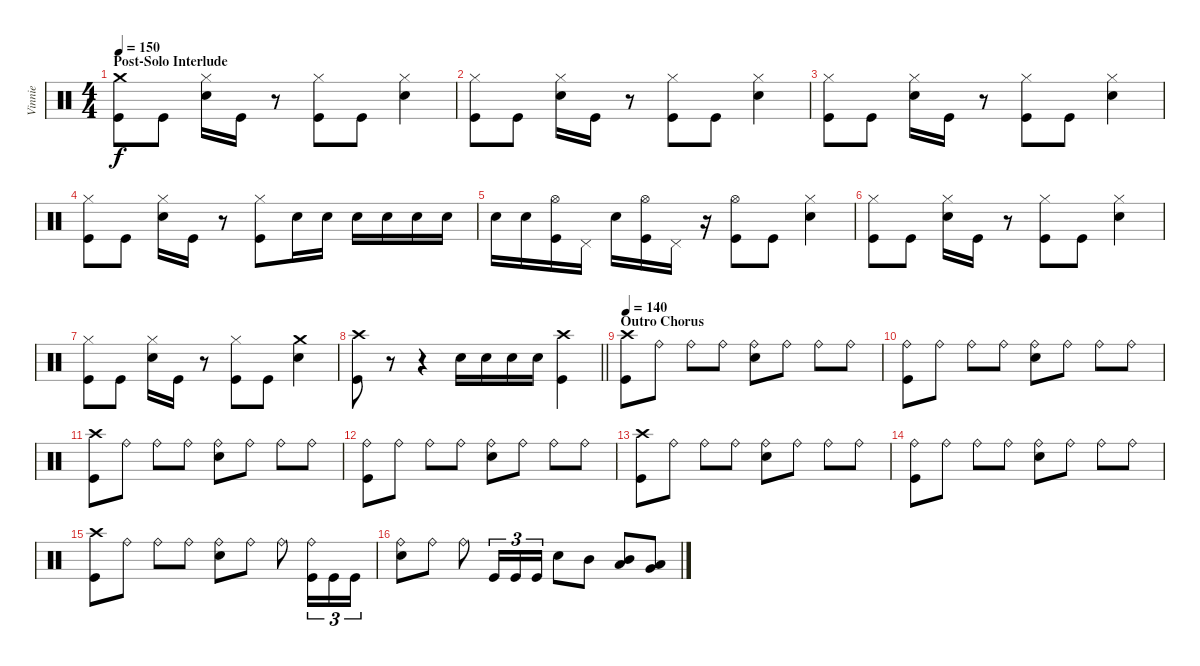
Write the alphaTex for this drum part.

\track ("Vinnie" "Vinnie") {instrument percussion}
\staff {score}
\articulation defaults
\ts (4 4)
\section ("" "Post-Solo Interlude")
\tempo 150
\clef neutral
\ks c
("Crash medium (hit)" "Kick (hit)").8{dy f} "Kick (hit)".8 ("Hi-Hat (closed)" "Electric Snare (hit)").16 "Kick (hit)".16 r.8 ("Hi-Hat (closed)" "Kick (hit)").8 "Kick (hit)".8 ("Hi-Hat (closed)" "Electric Snare (hit)").4 |
("Hi-Hat (closed)" "Kick (hit)").8 "Kick (hit)".8 ("Hi-Hat (closed)" "Electric Snare (hit)").16 "Kick (hit)".16 r.8 ("Hi-Hat (closed)" "Kick (hit)").8 "Kick (hit)".8 ("Hi-Hat (closed)" "Electric Snare (hit)").4 |
("Hi-Hat (closed)" "Kick (hit)").8 "Kick (hit)".8 ("Hi-Hat (closed)" "Electric Snare (hit)").16 "Kick (hit)".16 r.8 ("Hi-Hat (closed)" "Kick (hit)").8 "Kick (hit)".8 ("Hi-Hat (closed)" "Electric Snare (hit)").4 |
("Hi-Hat (closed)" "Kick (hit)").8 "Kick (hit)".8 ("Hi-Hat (closed)" "Electric Snare (hit)").16 "Kick (hit)".16 r.8 ("Hi-Hat (closed)" "Kick (hit)").8 "Electric Snare (hit)".16 "Electric Snare (hit)".16 "Electric Snare (hit)".16 "Electric Snare (hit)".16 "Electric Snare (hit)".16 "Electric Snare (hit)".16 |
"Electric Snare (hit)".16 "Electric Snare (hit)".16 ("Hi-Hat (open)" "Kick (hit)").16 "Pedal Hi-Hat (hit)".16 "Electric Snare (hit)".16 ("Hi-Hat (open)" "Kick (hit)").16 "Pedal Hi-Hat (hit)".16 r.16 ("Hi-Hat (open)" "Kick (hit)").8 "Kick (hit)".8 ("Hi-Hat (closed)" "Electric Snare (hit)").4 |
("Hi-Hat (closed)" "Kick (hit)").8 "Kick (hit)".8 ("Hi-Hat (closed)" "Electric Snare (hit)").16 "Kick (hit)".16 r.8 ("Hi-Hat (closed)" "Kick (hit)").8 "Kick (hit)".8 ("Hi-Hat (closed)" "Electric Snare (hit)").4 |
("Hi-Hat (closed)" "Kick (hit)").8 "Kick (hit)".8 ("Hi-Hat (closed)" "Electric Snare (hit)").16 "Kick (hit)".16 r.8 ("Hi-Hat (closed)" "Kick (hit)").8 "Kick (hit)".8 ("Crash medium (hit)" "Electric Snare (hit)").4 |
\barLineRight lightlight
("Crash high (hit)" "Kick (hit)").8 r.8{volume 0} r.4 "Electric Snare (hit)".16{volume 16} "Electric Snare (hit)".16 "Electric Snare (hit)".16 "Electric Snare (hit)".16 ("Crash high (hit)" "Kick (hit)").4 |
\section ("" "Outro Chorus")
\tempo 140
("Crash high (hit)" "Kick (hit)").8 "Ride (bell)".8 "Ride (bell)".8 "Ride (bell)".8 ("Ride (bell)" "Electric Snare (hit)").8 "Ride (bell)".8 "Ride (bell)".8 "Ride (bell)".8 |
("Ride (bell)" "Kick (hit)").8 "Ride (bell)".8 "Ride (bell)".8 "Ride (bell)".8 ("Ride (bell)" "Electric Snare (hit)").8 "Ride (bell)".8 "Ride (bell)".8 "Ride (bell)".8 |
("Crash high (hit)" "Kick (hit)").8 "Ride (bell)".8 "Ride (bell)".8 "Ride (bell)".8 ("Ride (bell)" "Electric Snare (hit)").8 "Ride (bell)".8 "Ride (bell)".8 "Ride (bell)".8 |
("Ride (bell)" "Kick (hit)").8 "Ride (bell)".8 "Ride (bell)".8 "Ride (bell)".8 ("Ride (bell)" "Electric Snare (hit)").8 "Ride (bell)".8 "Ride (bell)".8 "Ride (bell)".8 |
("Crash high (hit)" "Kick (hit)").8 "Ride (bell)".8 "Ride (bell)".8 "Ride (bell)".8 ("Ride (bell)" "Electric Snare (hit)").8 "Ride (bell)".8 "Ride (bell)".8 "Ride (bell)".8 |
("Ride (bell)" "Kick (hit)").8 "Ride (bell)".8 "Ride (bell)".8 "Ride (bell)".8 ("Ride (bell)" "Electric Snare (hit)").8 "Ride (bell)".8 "Ride (bell)".8 "Ride (bell)".8 |
("Crash high (hit)" "Kick (hit)").8 "Ride (bell)".8 "Ride (bell)".8 "Ride (bell)".8 ("Ride (bell)" "Electric Snare (hit)").8 "Ride (bell)".8 "Ride (bell)".8 ("Ride (bell)" "Kick (hit)").16{tu (3 2)} "Kick (hit)".16{tu (3 2)} "Kick (hit)".16{tu (3 2)} |
("Ride (bell)" "Electric Snare (hit)").8 "Ride (bell)".8 "Ride (bell)".8 "Kick (hit)".16{tu (3 2)} "Kick (hit)".16{tu (3 2)} "Kick (hit)".16{tu (3 2)} "Electric Snare (hit)".8 "Mid Tom (hit)".8 ("Mid Tom (hit)" "Low Tom (hit)").8 ("Low Tom (hit)" "Very Low Tom (hit)").8
